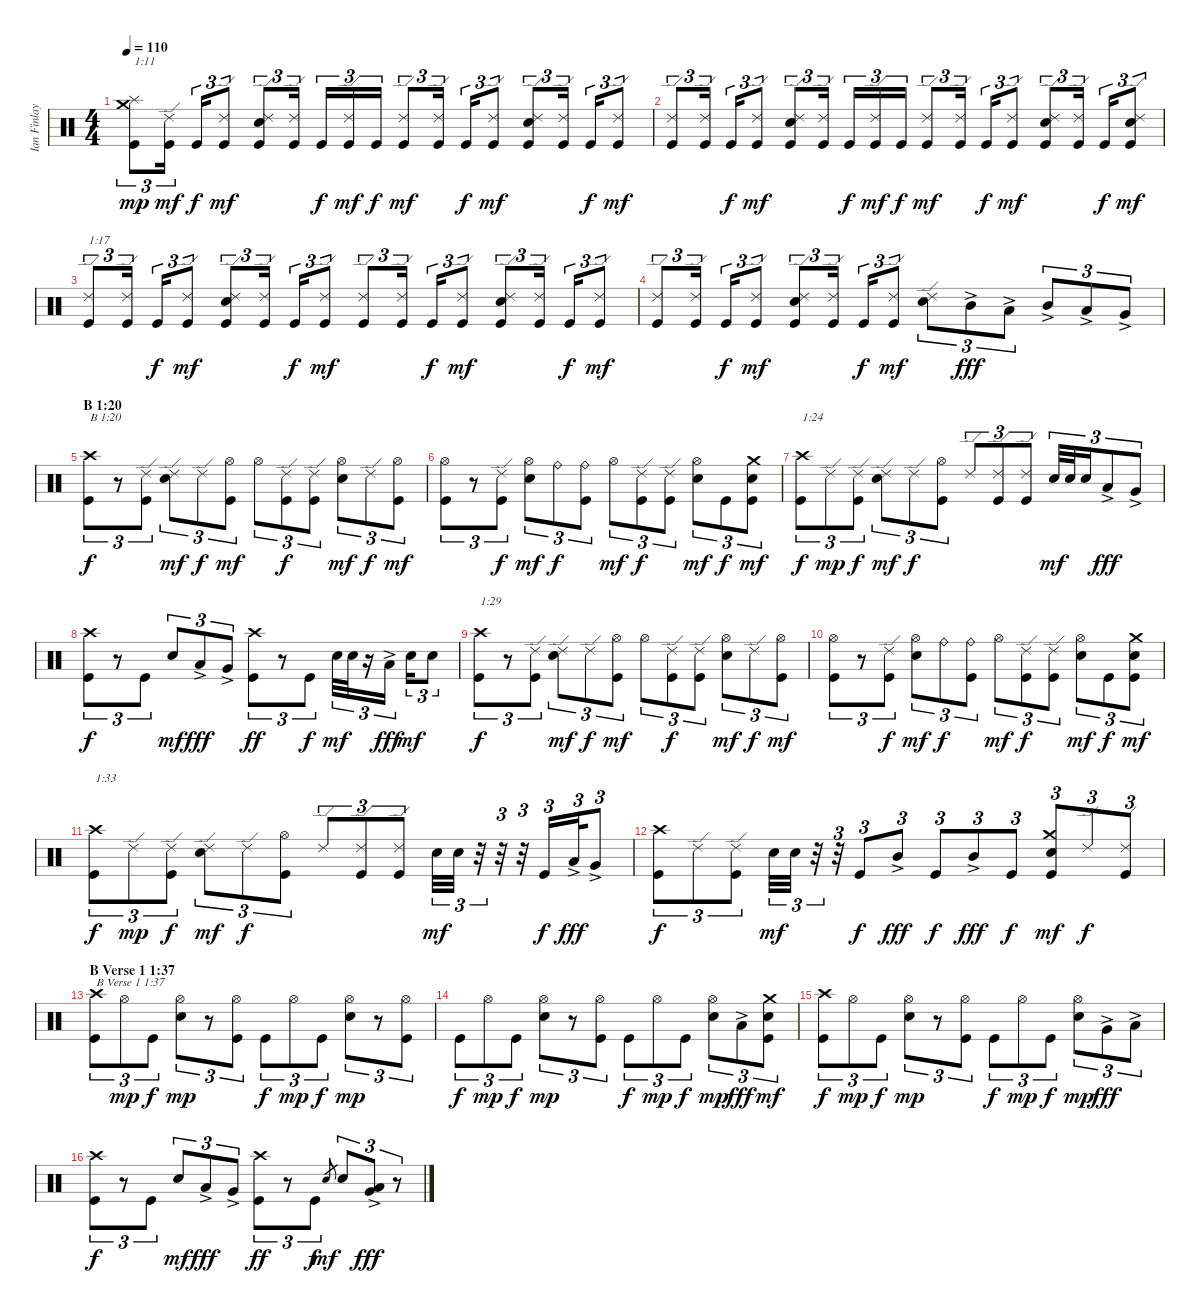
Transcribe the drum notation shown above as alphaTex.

\track ("Ian Finlay" "Ian Finlay") {instrument percussion}
\staff {score}
\articulation defaults
\ts (4 4)
\tempo 110
\clef neutral
\ks c
("Kick (hit)" "Splash (hit)" "Crash medium (hit)").8{tu (3 2) txt "1:11" dy mp} ("Kick (hit)" "Ride (edge) 2").16{tu (3 2) dy mf} "Kick (hit)".16{tu (3 2) dy f} ("Kick (hit)" "Ride (edge) 2").8{tu (3 2) dy mf} ("Kick (hit)" "Snare (hit) 2" "Ride (edge) 2").8{tu (3 2)} ("Kick (hit)" "Ride (edge) 2").16{tu (3 2)} "Kick (hit)".16{tu (3 2) dy f} ("Kick (hit)" "Ride (edge) 2").16{tu (3 2) dy mf} "Kick (hit)".16{tu (3 2) dy f} ("Kick (hit)" "Ride (edge) 2").8{tu (3 2) dy mf} ("Kick (hit)" "Ride (edge) 2").16{tu (3 2)} "Kick (hit)".16{tu (3 2) dy f} ("Kick (hit)" "Ride (edge) 2").8{tu (3 2) dy mf} ("Kick (hit)" "Snare (hit) 2" "Ride (edge) 2").8{tu (3 2)} ("Kick (hit)" "Ride (edge) 2").16{tu (3 2)} "Kick (hit)".16{tu (3 2) dy f} ("Kick (hit)" "Ride (edge) 2").8{tu (3 2) dy mf} |
("Kick (hit)" "Ride (edge) 2").8{tu (3 2)} ("Kick (hit)" "Ride (edge) 2").16{tu (3 2)} "Kick (hit)".16{tu (3 2) dy f} ("Kick (hit)" "Ride (edge) 2").8{tu (3 2) dy mf} ("Kick (hit)" "Snare (hit) 2" "Ride (edge) 2").8{tu (3 2)} ("Kick (hit)" "Ride (edge) 2").16{tu (3 2)} "Kick (hit)".16{tu (3 2) dy f} ("Kick (hit)" "Ride (edge) 2").16{tu (3 2) dy mf} "Kick (hit)".16{tu (3 2) dy f} ("Kick (hit)" "Ride (edge) 2").8{tu (3 2) dy mf} ("Kick (hit)" "Ride (edge) 2").16{tu (3 2)} "Kick (hit)".16{tu (3 2) dy f} ("Kick (hit)" "Ride (edge) 2").8{tu (3 2) dy mf} ("Kick (hit)" "Snare (hit) 2" "Ride (edge) 2").8{tu (3 2)} ("Kick (hit)" "Ride (edge) 2").16{tu (3 2)} "Kick (hit)".16{tu (3 2) dy f} ("Kick (hit)" "Snare (hit) 2" "Ride (edge) 2").8{tu (3 2) dy mf} |
("Kick (hit)" "Ride (edge) 2").8{tu (3 2) txt "1:17"} ("Kick (hit)" "Ride (edge) 2").16{tu (3 2)} "Kick (hit)".16{tu (3 2) dy f} ("Kick (hit)" "Ride (edge) 2").8{tu (3 2) dy mf} ("Kick (hit)" "Snare (hit) 2" "Ride (edge) 2").8{tu (3 2)} ("Kick (hit)" "Ride (edge) 2").16{tu (3 2)} "Kick (hit)".16{tu (3 2) dy f} ("Kick (hit)" "Ride (edge) 2").8{tu (3 2) dy mf} ("Kick (hit)" "Ride (edge) 2").8{tu (3 2)} ("Kick (hit)" "Ride (edge) 2").16{tu (3 2)} "Kick (hit)".16{tu (3 2) dy f} ("Kick (hit)" "Ride (edge) 2").8{tu (3 2) dy mf} ("Kick (hit)" "Snare (hit) 2" "Ride (edge) 2").8{tu (3 2)} ("Kick (hit)" "Ride (edge) 2").16{tu (3 2)} "Kick (hit)".16{tu (3 2) dy f} ("Kick (hit)" "Ride (edge) 2").8{tu (3 2) dy mf} |
("Kick (hit)" "Ride (edge) 2").8{tu (3 2)} ("Kick (hit)" "Ride (edge) 2").16{tu (3 2)} "Kick (hit)".16{tu (3 2) dy f} ("Kick (hit)" "Ride (edge) 2").8{tu (3 2) dy mf} ("Kick (hit)" "Snare (hit) 2" "Ride (edge) 2").8{tu (3 2)} ("Kick (hit)" "Ride (edge) 2").16{tu (3 2)} "Kick (hit)".16{tu (3 2) dy f} ("Kick (hit)" "Ride (edge) 2").8{tu (3 2) dy mf} ("Snare (hit) 2" "Ride (edge) 2").8{tu (3 2)} "Mid Tom (hit)"{ac}.8{tu (3 2) dy fff} "Low Tom (hit)"{ac}.8{tu (3 2)} "Mid Tom (hit)"{ac}.8{tu (3 2)} "Low Tom (hit)"{ac}.8{tu (3 2)} "Very Low Tom (hit)"{ac}.8{tu (3 2)} |
\section ("" "B 1:20")
("Kick (hit)" "Crash high (hit)").8{tu (3 2) txt "B 1:20" dy f} r.8{tu (3 2)} ("Kick (hit)" "Ride (edge) 2").8{tu (3 2)} ("Snare (hit) 2" "Ride (edge) 2").8{tu (3 2) dy mf} "Ride (edge) 2".8{tu (3 2) dy f} ("Kick (hit)" "Hi-Hat (open)").8{tu (3 2) dy mf} "Hi-Hat (open)".8{tu (3 2)} ("Kick (hit)" "Ride (edge) 2").8{tu (3 2) dy f} ("Kick (hit)" "Ride (edge) 2").8{tu (3 2)} ("Snare (hit) 2" "Hi-Hat (open)").8{tu (3 2) dy mf} "Ride (edge) 2".8{tu (3 2) dy f} ("Kick (hit)" "Hi-Hat (open)").8{tu (3 2) dy mf} |
("Kick (hit)" "Hi-Hat (open)").8{tu (3 2)} r.8{tu (3 2)} ("Kick (hit)" "Ride (edge) 2").8{tu (3 2) dy f} ("Snare (hit) 2" "Hi-Hat (open)").8{tu (3 2) dy mf} "Ride (bell)".8{tu (3 2) dy f} ("Kick (hit)" "Ride (bell)").8{tu (3 2)} "Hi-Hat (open)".8{tu (3 2) dy mf} ("Kick (hit)" "Ride (edge) 2").8{tu (3 2) dy f} ("Kick (hit)" "Ride (edge) 2").8{tu (3 2)} ("Snare (hit) 2" "Hi-Hat (open)").8{tu (3 2) dy mf} "Kick (hit)".8{tu (3 2) dy f} ("Kick (hit)" "Snare (hit) 2" "Crash medium (hit)").8{tu (3 2) dy mf} |
("Kick (hit)" "Crash high (hit)").8{tu (3 2) txt "1:24" dy f} "Ride (edge) 2".8{tu (3 2) dy mp} ("Kick (hit)" "Ride (edge) 2").8{tu (3 2) dy f} ("Snare (hit) 2" "Ride (edge) 2").8{tu (3 2) dy mf} "Ride (edge) 2".8{tu (3 2) dy f} ("Kick (hit)" "Hi-Hat (open)").8{tu (3 2)} "Ride (edge) 2".8{tu (3 2)} ("Kick (hit)" "Ride (edge) 2").8{tu (3 2)} ("Kick (hit)" "Ride (edge) 2").8{tu (3 2)} "Snare (hit) 2".32{tu (3 2) dy mf} "Snare (hit) 2".32{tu (3 2)} "Snare (hit) 2".16{tu (3 2)} "Low Tom (hit)"{ac}.8{tu (3 2) dy fff} "Very Low Tom (hit)"{ac}.8{tu (3 2)} |
("Kick (hit)" "Crash high (hit)").8{tu (3 2) dy f} r.8{tu (3 2)} "Kick (hit)".8{tu (3 2)} "Snare (hit) 2".8{tu (3 2) dy mf} "Low Tom (hit)"{ac}.8{tu (3 2) dy fff} "Very Low Tom (hit)"{ac}.8{tu (3 2)} ("Kick (hit)" "Crash high (hit)").8{tu (3 2) dy ff} r.8{tu (3 2)} "Kick (hit)".8{tu (3 2) dy f} "Snare (hit) 2".32{tu (3 2) dy mf} "Snare (hit) 2".32{tu (3 2)} r.16{tu (3 2)} "Low Tom (hit)"{ac}.16{tu (3 2) dy fff} "Snare (hit) 2".16{tu (3 2) dy mf} "Snare (hit) 2".8{tu (3 2)} |
("Kick (hit)" "Crash high (hit)").8{tu (3 2) txt "1:29" dy f} r.8{tu (3 2)} ("Kick (hit)" "Ride (edge) 2").8{tu (3 2)} ("Snare (hit) 2" "Ride (edge) 2").8{tu (3 2) dy mf} "Ride (edge) 2".8{tu (3 2) dy f} ("Kick (hit)" "Hi-Hat (open)").8{tu (3 2) dy mf} "Hi-Hat (open)".8{tu (3 2)} ("Kick (hit)" "Ride (edge) 2").8{tu (3 2) dy f} ("Kick (hit)" "Ride (edge) 2").8{tu (3 2)} ("Snare (hit) 2" "Hi-Hat (open)").8{tu (3 2) dy mf} "Ride (edge) 2".8{tu (3 2) dy f} ("Kick (hit)" "Hi-Hat (open)").8{tu (3 2) dy mf} |
("Kick (hit)" "Hi-Hat (open)").8{tu (3 2)} r.8{tu (3 2)} ("Kick (hit)" "Ride (edge) 2").8{tu (3 2) dy f} ("Snare (hit) 2" "Hi-Hat (open)").8{tu (3 2) dy mf} "Ride (bell)".8{tu (3 2) dy f} ("Kick (hit)" "Ride (bell)").8{tu (3 2)} "Hi-Hat (open)".8{tu (3 2) dy mf} ("Kick (hit)" "Ride (edge) 2").8{tu (3 2) dy f} ("Kick (hit)" "Ride (edge) 2").8{tu (3 2)} ("Snare (hit) 2" "Hi-Hat (open)").8{tu (3 2) dy mf} "Kick (hit)".8{tu (3 2) dy f} ("Kick (hit)" "Snare (hit) 2" "Crash medium (hit)").8{tu (3 2) dy mf} |
("Kick (hit)" "Crash high (hit)").8{tu (3 2) txt "1:33" dy f} "Ride (edge) 2".8{tu (3 2) dy mp} ("Kick (hit)" "Ride (edge) 2").8{tu (3 2) dy f} ("Snare (hit) 2" "Ride (edge) 2").8{tu (3 2) dy mf} "Ride (edge) 2".8{tu (3 2) dy f} ("Kick (hit)" "Hi-Hat (open)").8{tu (3 2)} "Ride (edge) 2".8{tu (3 2)} ("Kick (hit)" "Ride (edge) 2").8{tu (3 2)} ("Kick (hit)" "Ride (edge) 2").8{tu (3 2)} "Snare (hit) 2".32{tu (3 2) dy mf} "Snare (hit) 2".32{tu (3 2)} r.32{tu (3 2)} r.32{tu (3 2)} r.32{tu (3 2)} "Kick (hit)".16{tu (3 2) dy f} "Low Tom (hit)"{ac}.32{tu (3 2) dy fff} "Very Low Tom (hit)"{ac}.8{tu (3 2)} |
("Kick (hit)" "Crash high (hit)").8{tu (3 2) dy f} "Ride (edge) 2".8{tu (3 2)} ("Kick (hit)" "Ride (edge) 2").8{tu (3 2)} "Snare (hit) 2".32{tu (3 2) dy mf} "Snare (hit) 2".32{tu (3 2)} r.32{tu (3 2)} r.32{tu (3 2)} "Kick (hit)".8{tu (3 2) dy f} "Mid Tom (hit)"{ac}.8{tu (3 2) dy fff} "Kick (hit)".8{tu (3 2) dy f} "Mid Tom (hit)"{ac}.8{tu (3 2) dy fff} "Kick (hit)".8{tu (3 2) dy f} ("Kick (hit)" "Snare (hit) 2" "Crash medium (hit)").8{tu (3 2) dy mf} "Ride (edge) 2".8{tu (3 2) dy f} ("Kick (hit)" "Ride (edge) 2").8{tu (3 2)} |
\section ("" "B Verse 1 1:37")
("Kick (hit)" "Crash high (hit)").8{tu (3 2) txt "B Verse 1 1:37"} "Hi-Hat (open)".8{tu (3 2) dy mp} "Kick (hit)".8{tu (3 2) dy f} ("Snare (hit) 2" "Hi-Hat (open)").8{tu (3 2) dy mp} r.8{tu (3 2)} ("Kick (hit)" "Hi-Hat (open)").8{tu (3 2)} "Kick (hit)".8{tu (3 2) dy f} "Hi-Hat (open)".8{tu (3 2) dy mp} "Kick (hit)".8{tu (3 2) dy f} ("Snare (hit) 2" "Hi-Hat (open)").8{tu (3 2) dy mp} r.8{tu (3 2)} ("Kick (hit)" "Hi-Hat (open)").8{tu (3 2)} |
"Kick (hit)".8{tu (3 2) dy f} "Hi-Hat (open)".8{tu (3 2) dy mp} "Kick (hit)".8{tu (3 2) dy f} ("Snare (hit) 2" "Hi-Hat (open)").8{tu (3 2) dy mp} r.8{tu (3 2)} ("Kick (hit)" "Hi-Hat (open)").8{tu (3 2)} "Kick (hit)".8{tu (3 2) dy f} "Hi-Hat (open)".8{tu (3 2) dy mp} "Kick (hit)".8{tu (3 2) dy f} ("Snare (hit) 2" "Hi-Hat (open)").8{tu (3 2) dy mp} "Low Tom (hit)"{ac}.8{tu (3 2) dy fff} ("Kick (hit)" "Snare (hit) 2" "Crash medium (hit)").8{tu (3 2) dy mf} |
("Kick (hit)" "Crash high (hit)").8{tu (3 2) dy f} "Hi-Hat (open)".8{tu (3 2) dy mp} "Kick (hit)".8{tu (3 2) dy f} ("Snare (hit) 2" "Hi-Hat (open)").8{tu (3 2) dy mp} r.8{tu (3 2)} ("Kick (hit)" "Hi-Hat (open)").8{tu (3 2)} "Kick (hit)".8{tu (3 2) dy f} "Hi-Hat (open)".8{tu (3 2) dy mp} "Kick (hit)".8{tu (3 2) dy f} ("Snare (hit) 2" "Hi-Hat (open)").8{tu (3 2) dy mp} "Very Low Tom (hit)"{ac}.8{tu (3 2) dy fff} "Low Tom (hit)"{ac}.8{tu (3 2)} |
("Kick (hit)" "Crash high (hit)").8{tu (3 2) dy f} r.8{tu (3 2)} "Kick (hit)".8{tu (3 2)} "Snare (hit) 2".8{tu (3 2) dy mf} "Low Tom (hit)"{ac}.8{tu (3 2) dy fff} "Very Low Tom (hit)"{ac}.8{tu (3 2)} ("Kick (hit)" "Crash high (hit)").8{tu (3 2) dy ff} r.8{tu (3 2)} "Kick (hit)".8{tu (3 2) dy f} "Snare (hit) 2".8{gr dy mf} "Snare (hit) 2".8{tu (3 2)} ("Low Tom (hit)"{ac} "Very Low Tom (hit)"{ac}).8{tu (3 2) dy fff} r.8{tu (3 2)}
